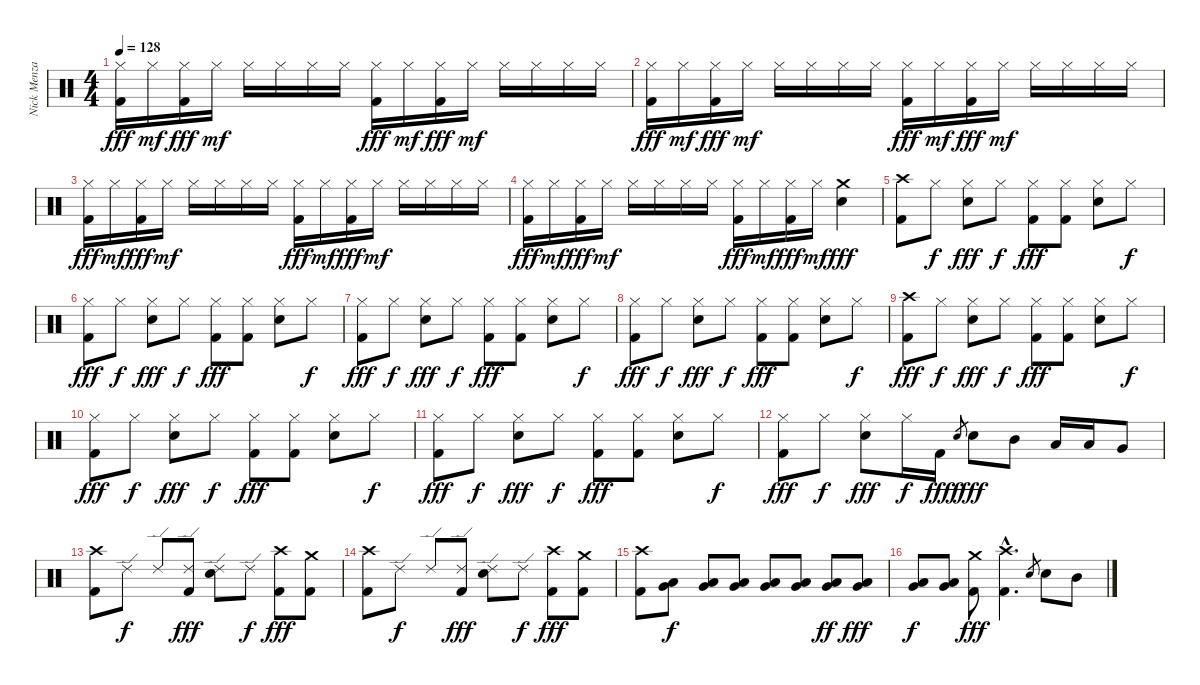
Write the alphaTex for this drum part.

\track ("Nick Menza" "Nick Menza") {instrument percussion}
\staff {score}
\articulation defaults
\ts (4 4)
\tempo 128
\clef neutral
\ks c
("Hi-Hat (closed)" "Kick (hit) 2").16{dy fff} "Hi-Hat (closed)".16{dy mf} ("Hi-Hat (closed)" "Kick (hit) 2").16{dy fff} "Hi-Hat (closed)".16{dy mf} "Hi-Hat (closed)".16 "Hi-Hat (closed)".16 "Hi-Hat (closed)".16 "Hi-Hat (closed)".16 ("Hi-Hat (closed)" "Kick (hit) 2").16{dy fff} "Hi-Hat (closed)".16{dy mf} ("Hi-Hat (closed)" "Kick (hit) 2").16{dy fff} "Hi-Hat (closed)".16{dy mf} "Hi-Hat (closed)".16 "Hi-Hat (closed)".16 "Hi-Hat (closed)".16 "Hi-Hat (closed)".16 |
("Hi-Hat (closed)" "Kick (hit) 2").16{dy fff} "Hi-Hat (closed)".16{dy mf} ("Hi-Hat (closed)" "Kick (hit) 2").16{dy fff} "Hi-Hat (closed)".16{dy mf} "Hi-Hat (closed)".16 "Hi-Hat (closed)".16 "Hi-Hat (closed)".16 "Hi-Hat (closed)".16 ("Hi-Hat (closed)" "Kick (hit) 2").16{dy fff} "Hi-Hat (closed)".16{dy mf} ("Hi-Hat (closed)" "Kick (hit) 2").16{dy fff} "Hi-Hat (closed)".16{dy mf} "Hi-Hat (closed)".16 "Hi-Hat (closed)".16 "Hi-Hat (closed)".16 "Hi-Hat (closed)".16 |
("Hi-Hat (closed)" "Kick (hit) 2").16{dy fff} "Hi-Hat (closed)".16{dy mf} ("Hi-Hat (closed)" "Kick (hit) 2").16{dy fff} "Hi-Hat (closed)".16{dy mf} "Hi-Hat (closed)".16 "Hi-Hat (closed)".16 "Hi-Hat (closed)".16 "Hi-Hat (closed)".16 ("Hi-Hat (closed)" "Kick (hit) 2").16{dy fff} "Hi-Hat (closed)".16{dy mf} ("Hi-Hat (closed)" "Kick (hit) 2").16{dy fff} "Hi-Hat (closed)".16{dy mf} "Hi-Hat (closed)".16 "Hi-Hat (closed)".16 "Hi-Hat (closed)".16 "Hi-Hat (closed)".16 |
("Hi-Hat (closed)" "Kick (hit) 2").16{dy fff} "Hi-Hat (closed)".16{dy mf} ("Hi-Hat (closed)" "Kick (hit) 2").16{dy fff} "Hi-Hat (closed)".16{dy mf} "Hi-Hat (closed)".16 "Hi-Hat (closed)".16 "Hi-Hat (closed)".16 "Hi-Hat (closed)".16 ("Hi-Hat (closed)" "Kick (hit) 2").16{dy fff} "Hi-Hat (closed)".16{dy mf} ("Hi-Hat (closed)" "Kick (hit) 2").16{dy fff} "Hi-Hat (closed)".16{dy mf} ("Crash medium (hit)" "Electric Snare (hit)").4{dy fff} |
("Crash high (hit)" "Kick (hit) 2").8 "Hi-Hat (closed)".8{dy f} ("Hi-Hat (closed)" "Electric Snare (hit)").8{dy fff} "Hi-Hat (closed)".8{dy f} ("Hi-Hat (closed)" "Kick (hit) 2").8{dy fff} ("Hi-Hat (closed)" "Kick (hit) 2").8 ("Hi-Hat (closed)" "Electric Snare (hit)").8 "Hi-Hat (closed)".8{dy f} |
("Hi-Hat (closed)" "Kick (hit) 2").8{dy fff} "Hi-Hat (closed)".8{dy f} ("Hi-Hat (closed)" "Electric Snare (hit)").8{dy fff} "Hi-Hat (closed)".8{dy f} ("Hi-Hat (closed)" "Kick (hit) 2").8{dy fff} ("Hi-Hat (closed)" "Kick (hit) 2").8 ("Hi-Hat (closed)" "Electric Snare (hit)").8 "Hi-Hat (closed)".8{dy f} |
("Hi-Hat (closed)" "Kick (hit) 2").8{dy fff} "Hi-Hat (closed)".8{dy f} ("Hi-Hat (closed)" "Electric Snare (hit)").8{dy fff} "Hi-Hat (closed)".8{dy f} ("Hi-Hat (closed)" "Kick (hit) 2").8{dy fff} ("Hi-Hat (closed)" "Kick (hit) 2").8 ("Hi-Hat (closed)" "Electric Snare (hit)").8 "Hi-Hat (closed)".8{dy f} |
("Hi-Hat (closed)" "Kick (hit) 2").8{dy fff} "Hi-Hat (closed)".8{dy f} ("Hi-Hat (closed)" "Electric Snare (hit)").8{dy fff} "Hi-Hat (closed)".8{dy f} ("Hi-Hat (closed)" "Kick (hit) 2").8{dy fff} ("Hi-Hat (closed)" "Kick (hit) 2").8 ("Hi-Hat (closed)" "Electric Snare (hit)").8 "Hi-Hat (closed)".8{dy f} |
("Crash high (hit)" "Kick (hit) 2").8{dy fff} "Hi-Hat (closed)".8{dy f} ("Hi-Hat (closed)" "Electric Snare (hit)").8{dy fff} "Hi-Hat (closed)".8{dy f} ("Hi-Hat (closed)" "Kick (hit) 2").8{dy fff} ("Hi-Hat (closed)" "Kick (hit) 2").8 ("Hi-Hat (closed)" "Electric Snare (hit)").8 "Hi-Hat (closed)".8{dy f} |
("Hi-Hat (closed)" "Kick (hit) 2").8{dy fff} "Hi-Hat (closed)".8{dy f} ("Hi-Hat (closed)" "Electric Snare (hit)").8{dy fff} "Hi-Hat (closed)".8{dy f} ("Hi-Hat (closed)" "Kick (hit) 2").8{dy fff} ("Hi-Hat (closed)" "Kick (hit) 2").8 ("Hi-Hat (closed)" "Electric Snare (hit)").8 "Hi-Hat (closed)".8{dy f} |
("Hi-Hat (closed)" "Kick (hit) 2").8{dy fff} "Hi-Hat (closed)".8{dy f} ("Hi-Hat (closed)" "Electric Snare (hit)").8{dy fff} "Hi-Hat (closed)".8{dy f} ("Hi-Hat (closed)" "Kick (hit) 2").8{dy fff} ("Hi-Hat (closed)" "Kick (hit) 2").8 ("Hi-Hat (closed)" "Electric Snare (hit)").8 "Hi-Hat (closed)".8{dy f} |
("Hi-Hat (closed)" "Kick (hit) 2").8{dy fff} "Hi-Hat (closed)".8{dy f} ("Hi-Hat (closed)" "Electric Snare (hit)").8{dy fff} "Hi-Hat (closed)".16{dy f} "Kick (hit) 2".16{dy fff} "Electric Snare (hit)".8{gr dy f} "Electric Snare (hit)".8{dy fff} "Mid Tom (hit)".8 "Low Tom (hit)".16 "Low Tom (hit)".16 "Very Low Tom (hit)".8 |
("Crash high (hit)" "Kick (hit) 2").8 "Ride (edge) 2".8{dy f} "Ride (edge) 2".8 ("Ride (edge) 2" "Kick (hit) 2").8{dy fff} ("Ride (edge) 2" "Electric Snare (hit)").8 "Ride (edge) 2".8{dy f} ("Crash high (hit)" "Kick (hit) 2").8{dy fff} ("Crash medium (hit)" "Kick (hit) 2").8 |
("Crash high (hit)" "Kick (hit) 2").8 "Ride (edge) 2".8{dy f} "Ride (edge) 2".8 ("Ride (edge) 2" "Kick (hit) 2").8{dy fff} ("Ride (edge) 2" "Electric Snare (hit)").8 "Ride (edge) 2".8{dy f} ("Crash high (hit)" "Kick (hit) 2").8{dy fff} ("Crash medium (hit)" "Kick (hit) 2").8 |
("Crash high (hit)" "Kick (hit) 2").8 ("Very Low Tom (hit)" "Low Floor Tom (hit)").8{dy f} ("Very Low Tom (hit)" "Low Floor Tom (hit)").8 ("Very Low Tom (hit)" "Low Floor Tom (hit)").8 ("Very Low Tom (hit)" "Low Floor Tom (hit)").8 ("Very Low Tom (hit)" "Low Floor Tom (hit)").8 ("Very Low Tom (hit)" "Low Floor Tom (hit)").8{dy ff} ("Very Low Tom (hit)" "Low Floor Tom (hit)").8{dy fff} |
("Very Low Tom (hit)" "Low Floor Tom (hit)").8{dy f} ("Very Low Tom (hit)" "Low Floor Tom (hit)").8 ("Crash medium (hit)" "Kick (hit) 2").8{dy fff} ("Crash high (hit)"{hac} "Kick (hit) 2"{hac}).4{d} "Electric Snare (hit)".8{gr} "Electric Snare (hit)".8 "Mid Tom (hit)".8
